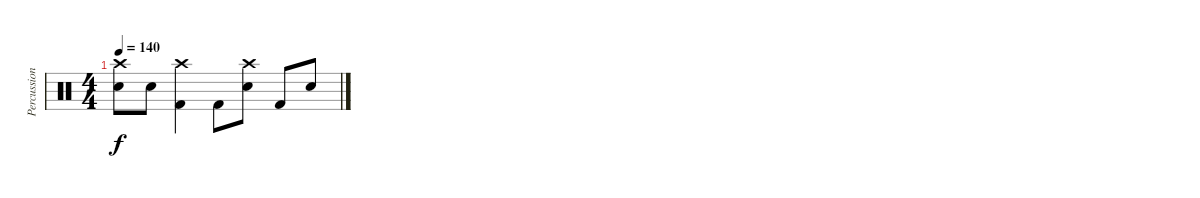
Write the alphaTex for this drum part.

\track ("Percussion" "Percussion") {instrument percussion}
\staff {score}
\articulation defaults
\ts (4 4)
\tempo 140
\clef neutral
\ks c
("Crash high (hit)"{t} "Snare (hit)"{t}).8{dy f} "Electric Snare (hit)".8 ("Crash high (hit)" "Kick (hit) 2").4 "Kick (hit) 2".8 ("Crash high (hit)" "Electric Snare (hit)").8 "Kick (hit) 2".8 "Electric Snare (hit)".8
